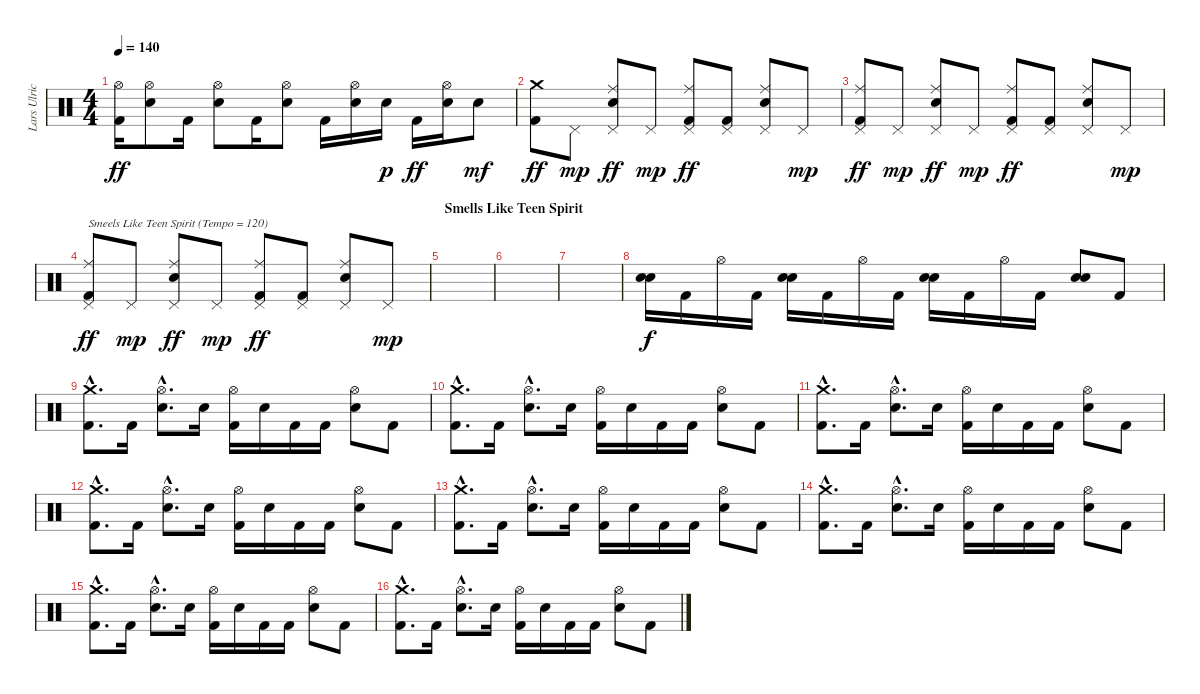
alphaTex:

\track ("Lars Ulrich" "Lars Ulric") {instrument percussion}
\staff {score}
\articulation defaults
\ts (4 4)
\tempo 140
\clef neutral
\ks c
("Hi-Hat (open)" "Kick (hit) 2").16{dy ff} ("Hi-Hat (open)" "Electric Snare (hit)").8 "Kick (hit) 2".16 ("Hi-Hat (open)" "Electric Snare (hit)").8 "Kick (hit) 2".16 ("Hi-Hat (open)" "Electric Snare (hit)").8 "Kick (hit) 2".16 ("Hi-Hat (open)" "Electric Snare (hit)").16 "Electric Snare (hit)".16{dy p} "Kick (hit) 2".16{dy ff} ("Hi-Hat (open)" "Electric Snare (hit)").16 "Electric Snare (hit)".8{dy mf} |
("Crash medium (hit)" "Kick (hit) 2").8{dy ff} "Pedal Hi-Hat (hit)".8{dy mp} ("Ride (middle)" "Pedal Hi-Hat (hit)" "Electric Snare (hit)").8{dy ff} "Pedal Hi-Hat (hit)".8{dy mp} ("Ride (middle)" "Pedal Hi-Hat (hit)" "Kick (hit) 2").8{dy ff} ("Pedal Hi-Hat (hit)" "Kick (hit) 2").8 ("Ride (middle)" "Pedal Hi-Hat (hit)" "Electric Snare (hit)").8 "Pedal Hi-Hat (hit)".8{dy mp} |
("Ride (middle)" "Pedal Hi-Hat (hit)" "Kick (hit) 2").8{dy ff} "Pedal Hi-Hat (hit)".8{dy mp} ("Ride (middle)" "Pedal Hi-Hat (hit)" "Electric Snare (hit)").8{dy ff} "Pedal Hi-Hat (hit)".8{dy mp} ("Ride (middle)" "Pedal Hi-Hat (hit)" "Kick (hit) 2").8{dy ff} ("Pedal Hi-Hat (hit)" "Kick (hit) 2").8 ("Ride (middle)" "Pedal Hi-Hat (hit)" "Electric Snare (hit)").8 "Pedal Hi-Hat (hit)".8{dy mp} |
("Ride (middle)" "Pedal Hi-Hat (hit)" "Kick (hit) 2").8{txt "Smeels Like Teen Spirit (Tempo = 120)" dy ff} "Pedal Hi-Hat (hit)".8{dy mp} ("Ride (middle)" "Pedal Hi-Hat (hit)" "Electric Snare (hit)").8{dy ff} "Pedal Hi-Hat (hit)".8{dy mp} ("Ride (middle)" "Pedal Hi-Hat (hit)" "Kick (hit) 2").8{dy ff} ("Pedal Hi-Hat (hit)" "Kick (hit) 2").8 ("Ride (middle)" "Pedal Hi-Hat (hit)" "Electric Snare (hit)").8 "Pedal Hi-Hat (hit)".8{dy mp} |
\section ("" "Smells Like Teen Spirit ")
|
|
|
("Electric Snare (hit)" "Electric Snare (hit)").16{dy f} "Kick (hit) 2".16 "Hi-Hat (open)".16 "Kick (hit) 2".16 ("Electric Snare (hit)" "Electric Snare (hit)").16 "Kick (hit) 2".16 "Hi-Hat (open)".16 "Kick (hit) 2".16 ("Electric Snare (hit)" "Electric Snare (hit)").16 "Kick (hit) 2".16 "Hi-Hat (open)".16 "Kick (hit) 2".16 ("Electric Snare (hit)" "Electric Snare (hit)").8 "Kick (hit) 2".8 |
("Crash medium (hit)"{hac} "Kick (hit) 2"{hac}).8{d} "Kick (hit) 2".16 ("Hi-Hat (open)"{hac} "Electric Snare (hit)"{hac}).8{d} "Electric Snare (hit)".16 ("Hi-Hat (open)" "Kick (hit) 2").16 "Electric Snare (hit)".16 "Kick (hit) 2".16 "Kick (hit) 2".16 ("Hi-Hat (open)" "Electric Snare (hit)").8 "Kick (hit) 2".8 |
("Crash medium (hit)"{hac} "Kick (hit) 2"{hac}).8{d} "Kick (hit) 2".16 ("Hi-Hat (open)"{hac} "Electric Snare (hit)"{hac}).8{d} "Electric Snare (hit)".16 ("Hi-Hat (open)" "Kick (hit) 2").16 "Electric Snare (hit)".16 "Kick (hit) 2".16 "Kick (hit) 2".16 ("Hi-Hat (open)" "Electric Snare (hit)").8 "Kick (hit) 2".8 |
("Crash medium (hit)"{hac} "Kick (hit) 2"{hac}).8{d} "Kick (hit) 2".16 ("Hi-Hat (open)"{hac} "Electric Snare (hit)"{hac}).8{d} "Electric Snare (hit)".16 ("Hi-Hat (open)" "Kick (hit) 2").16 "Electric Snare (hit)".16 "Kick (hit) 2".16 "Kick (hit) 2".16 ("Hi-Hat (open)" "Electric Snare (hit)").8 "Kick (hit) 2".8 |
("Crash medium (hit)"{hac} "Kick (hit) 2"{hac}).8{d} "Kick (hit) 2".16 ("Hi-Hat (open)"{hac} "Electric Snare (hit)"{hac}).8{d} "Electric Snare (hit)".16 ("Hi-Hat (open)" "Kick (hit) 2").16 "Electric Snare (hit)".16 "Kick (hit) 2".16 "Kick (hit) 2".16 ("Hi-Hat (open)" "Electric Snare (hit)").8 "Kick (hit) 2".8 |
("Crash medium (hit)"{hac} "Kick (hit) 2"{hac}).8{d} "Kick (hit) 2".16 ("Hi-Hat (open)"{hac} "Electric Snare (hit)"{hac}).8{d} "Electric Snare (hit)".16 ("Hi-Hat (open)" "Kick (hit) 2").16 "Electric Snare (hit)".16 "Kick (hit) 2".16 "Kick (hit) 2".16 ("Hi-Hat (open)" "Electric Snare (hit)").8 "Kick (hit) 2".8 |
("Crash medium (hit)"{hac} "Kick (hit) 2"{hac}).8{d} "Kick (hit) 2".16 ("Hi-Hat (open)"{hac} "Electric Snare (hit)"{hac}).8{d} "Electric Snare (hit)".16 ("Hi-Hat (open)" "Kick (hit) 2").16 "Electric Snare (hit)".16 "Kick (hit) 2".16 "Kick (hit) 2".16 ("Hi-Hat (open)" "Electric Snare (hit)").8 "Kick (hit) 2".8 |
("Crash medium (hit)"{hac} "Kick (hit) 2"{hac}).8{d} "Kick (hit) 2".16 ("Hi-Hat (open)"{hac} "Electric Snare (hit)"{hac}).8{d} "Electric Snare (hit)".16 ("Hi-Hat (open)" "Kick (hit) 2").16 "Electric Snare (hit)".16 "Kick (hit) 2".16 "Kick (hit) 2".16 ("Hi-Hat (open)" "Electric Snare (hit)").8 "Kick (hit) 2".8 |
("Crash medium (hit)"{hac} "Kick (hit) 2"{hac}).8{d} "Kick (hit) 2".16 ("Hi-Hat (open)"{hac} "Electric Snare (hit)"{hac}).8{d} "Electric Snare (hit)".16 ("Hi-Hat (open)" "Kick (hit) 2").16 "Electric Snare (hit)".16 "Kick (hit) 2".16 "Kick (hit) 2".16 ("Hi-Hat (open)" "Electric Snare (hit)").8 "Kick (hit) 2".8
